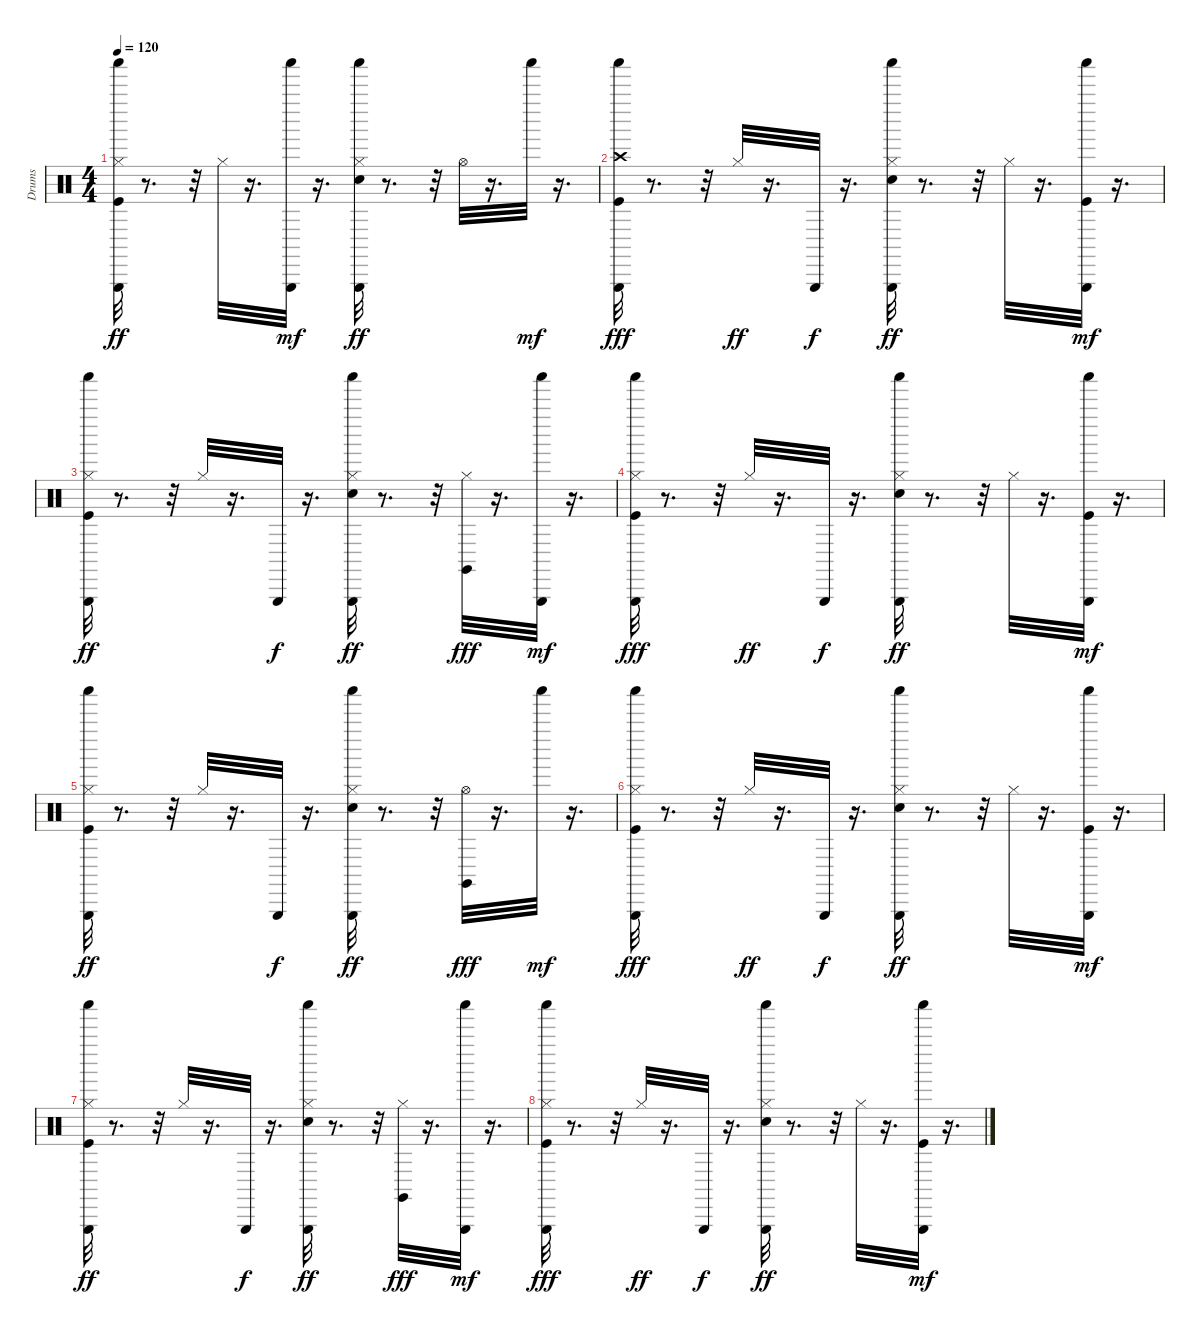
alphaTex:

\track ("Drums" "Drums") {instrument percussion}
\staff {score}
\articulation defaults
\ts (4 4)
\tempo 120
\clef neutral
\ks c
("Shaker (hit)" "Triangle (hit)" "Kick (hit)" "Hi-Hat (closed)").32{dy ff} r.8{d} r.32 "Hi-Hat (closed)".32 r.16{d} ("Shaker (hit)" "Triangle (hit)").32{dy mf} r.16{d} ("Shaker (hit)" "Triangle (hit)" "Electric Snare (hit)" "Hi-Hat (closed)").32{dy ff} r.8{d} r.32 "Hi-Hat (open)".32 r.16{d} "Shaker (hit)".32{dy mf} r.16{d} |
("Crash high (hit)" "Shaker (hit)" "Triangle (hit)" "Kick (hit)").32{dy fff} r.8{d} r.32 "Hi-Hat (closed)".32{dy ff} r.16{d} "Triangle (hit)".32{dy f} r.16{d} ("Shaker (hit)" "Triangle (hit)" "Electric Snare (hit)" "Hi-Hat (closed)").32{dy ff} r.8{d} r.32 "Hi-Hat (closed)".32 r.16{d} ("Kick (hit)" "Shaker (hit)" "Triangle (hit)").32{dy mf} r.16{d} |
("Shaker (hit)" "Triangle (hit)" "Kick (hit)" "Hi-Hat (closed)").32{dy ff} r.8{d} r.32 "Hi-Hat (closed)".32 r.16{d} "Triangle (hit)".32{dy f} r.16{d} ("Shaker (hit)" "Triangle (hit)" "Electric Snare (hit)" "Hi-Hat (closed)").32{dy ff} r.8{d} r.32 ("Hi-Hat (closed)" "Claves (hit)").32{dy fff} r.16{d} ("Shaker (hit)" "Triangle (hit)").32{dy mf} r.16{d} |
("Shaker (hit)" "Triangle (hit)" "Hi-Hat (closed)" "Kick (hit)").32{dy fff} r.8{d} r.32 "Hi-Hat (closed)".32{dy ff} r.16{d} "Triangle (hit)".32{dy f} r.16{d} ("Shaker (hit)" "Triangle (hit)" "Electric Snare (hit)" "Hi-Hat (closed)").32{dy ff} r.8{d} r.32 "Hi-Hat (closed)".32 r.16{d} ("Kick (hit)" "Shaker (hit)" "Triangle (hit)").32{dy mf} r.16{d} |
("Shaker (hit)" "Triangle (hit)" "Kick (hit)" "Hi-Hat (closed)").32{dy ff} r.8{d} r.32 "Hi-Hat (closed)".32 r.16{d} "Triangle (hit)".32{dy f} r.16{d} ("Shaker (hit)" "Triangle (hit)" "Electric Snare (hit)" "Hi-Hat (closed)").32{dy ff} r.8{d} r.32 ("Hi-Hat (open)" "Claves (hit)").32{dy fff} r.16{d} "Shaker (hit)".32{dy mf} r.16{d} |
("Shaker (hit)" "Triangle (hit)" "Hi-Hat (closed)" "Kick (hit)").32{dy fff} r.8{d} r.32 "Hi-Hat (closed)".32{dy ff} r.16{d} "Triangle (hit)".32{dy f} r.16{d} ("Shaker (hit)" "Triangle (hit)" "Electric Snare (hit)" "Hi-Hat (closed)").32{dy ff} r.8{d} r.32 "Hi-Hat (closed)".32 r.16{d} ("Kick (hit)" "Shaker (hit)" "Triangle (hit)").32{dy mf} r.16{d} |
("Shaker (hit)" "Triangle (hit)" "Kick (hit)" "Hi-Hat (closed)").32{dy ff} r.8{d} r.32 "Hi-Hat (closed)".32 r.16{d} "Triangle (hit)".32{dy f} r.16{d} ("Shaker (hit)" "Triangle (hit)" "Electric Snare (hit)" "Hi-Hat (closed)").32{dy ff} r.8{d} r.32 ("Hi-Hat (closed)" "Claves (hit)").32{dy fff} r.16{d} ("Shaker (hit)" "Triangle (hit)").32{dy mf} r.16{d} |
("Shaker (hit)" "Triangle (hit)" "Hi-Hat (closed)" "Kick (hit)").32{dy fff} r.8{d} r.32 "Hi-Hat (closed)".32{dy ff} r.16{d} "Triangle (hit)".32{dy f} r.16{d} ("Shaker (hit)" "Triangle (hit)" "Electric Snare (hit)" "Hi-Hat (closed)").32{dy ff} r.8{d} r.32 "Hi-Hat (closed)".32 r.16{d} ("Kick (hit)" "Shaker (hit)" "Triangle (hit)").32{dy mf} r.16{d}
